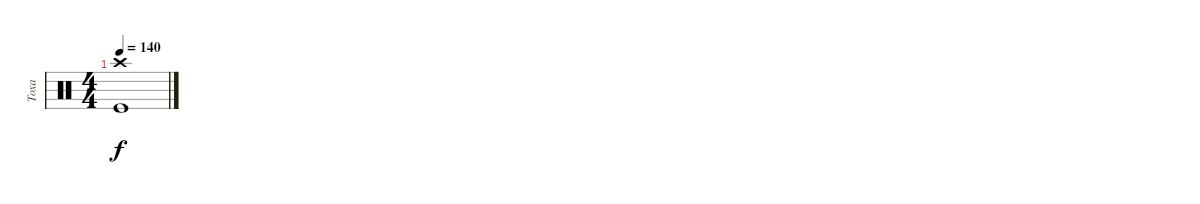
\track ("Тоха" "Тоха") {instrument percussion}
\staff {score}
\articulation defaults
\ts (4 4)
\tempo 140
\clef neutral
\ks c
("Kick (hit)" "Crash high (hit)").1{dy f}
